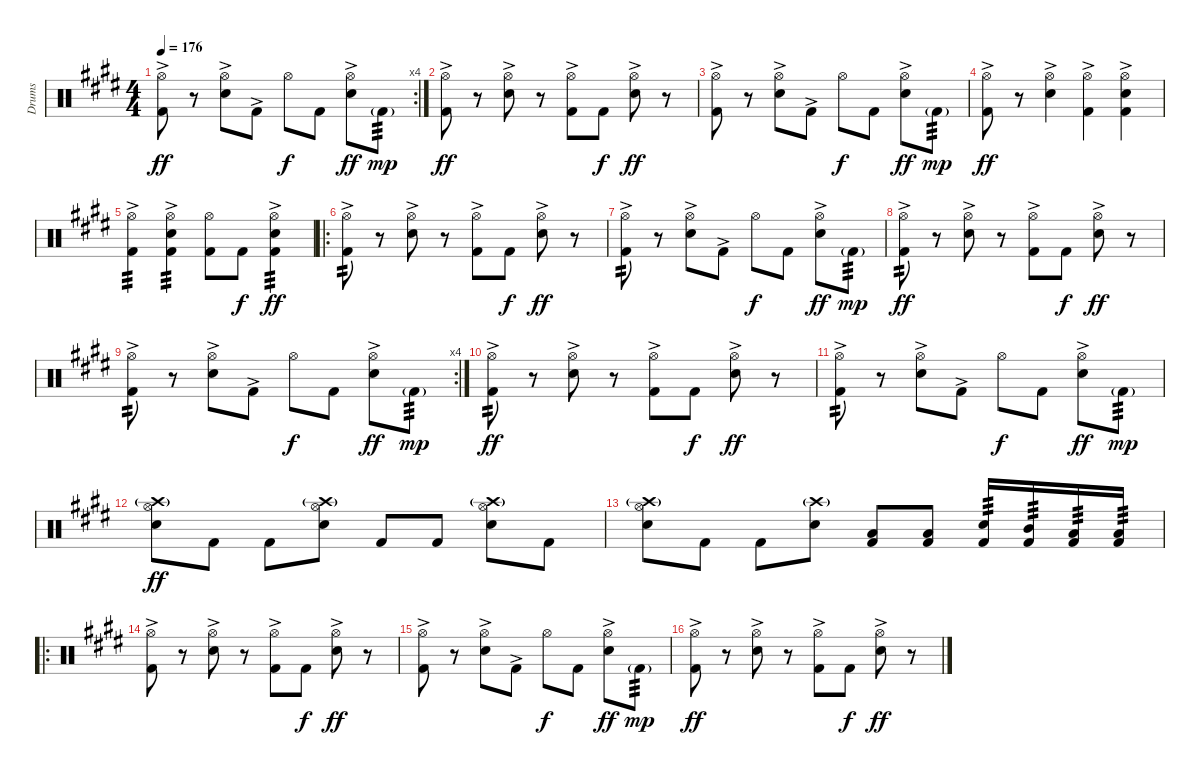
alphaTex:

\track ("Drums" "Drums") {instrument percussion}
\staff {score}
\articulation defaults
\rc 4
\ts (4 4)
\tempo 176
\clef neutral
\ks e
("Hi-Hat (open)" "Kick (hit) 2"{ac}).8{dy ff} r.8 ("Hi-Hat (open)" "Snare (hit) 2"{ac}).8 "Kick (hit) 2"{ac}.8 "Hi-Hat (open)".8{dy f} "Kick (hit) 2".8 ("Hi-Hat (open)" "Snare (hit) 2"{ac}).8{dy ff} "Kick (hit) 2"{g}.8{tp 3 dy mp} |
("Hi-Hat (open)" "Kick (hit) 2"{ac}).8{dy ff} r.8 ("Hi-Hat (open)" "Snare (hit) 2"{ac}).8 r.8 ("Hi-Hat (open)" "Kick (hit) 2"{ac}).8 "Kick (hit) 2".8{dy f} ("Hi-Hat (open)" "Snare (hit) 2"{ac}).8{dy ff} r.8 |
("Hi-Hat (open)" "Kick (hit) 2"{ac}).8 r.8 ("Hi-Hat (open)" "Snare (hit) 2"{ac}).8 "Kick (hit) 2"{ac}.8 "Hi-Hat (open)".8{dy f} "Kick (hit) 2".8 ("Hi-Hat (open)" "Snare (hit) 2"{ac}).8{dy ff} "Kick (hit) 2"{g}.8{tp 3 dy mp} |
("Hi-Hat (open)" "Kick (hit) 2"{ac}).8{dy ff} r.8 ("Hi-Hat (open)" "Snare (hit) 2"{ac}).4 ("Hi-Hat (open)" "Kick (hit) 2"{ac}).4 ("Hi-Hat (open)" "Snare (hit) 2"{ac} "Kick (hit) 2").4 |
("Hi-Hat (open)" "Kick (hit) 2"{ac}).4{tp 3} ("Hi-Hat (open)" "Snare (hit) 2"{ac} "Kick (hit) 2").4{tp 3} ("Hi-Hat (open)" "Kick (hit) 2").8 "Kick (hit) 2".8{dy f} ("Hi-Hat (open)" "Snare (hit) 2"{ac} "Kick (hit) 2").4{tp 3 dy ff} |
\ro
("Hi-Hat (open)" "Kick (hit) 2"{ac}).8{tp 2} r.8 ("Hi-Hat (open)" "Snare (hit) 2"{ac}).8 r.8 ("Hi-Hat (open)" "Kick (hit) 2"{ac}).8 "Kick (hit) 2".8{dy f} ("Hi-Hat (open)" "Snare (hit) 2"{ac}).8{dy ff} r.8 |
("Hi-Hat (open)" "Kick (hit) 2"{ac}).8{tp 2} r.8 ("Hi-Hat (open)" "Snare (hit) 2"{ac}).8 "Kick (hit) 2"{ac}.8 "Hi-Hat (open)".8{dy f} "Kick (hit) 2".8 ("Hi-Hat (open)" "Snare (hit) 2"{ac}).8{dy ff} "Kick (hit) 2"{g}.8{tp 3 dy mp} |
("Hi-Hat (open)" "Kick (hit) 2"{ac}).8{tp 2 dy ff} r.8 ("Hi-Hat (open)" "Snare (hit) 2"{ac}).8 r.8 ("Hi-Hat (open)" "Kick (hit) 2"{ac}).8 "Kick (hit) 2".8{dy f} ("Hi-Hat (open)" "Snare (hit) 2"{ac}).8{dy ff} r.8 |
\rc 4
("Hi-Hat (open)" "Kick (hit) 2"{ac}).8{tp 2} r.8 ("Hi-Hat (open)" "Snare (hit) 2"{ac}).8 "Kick (hit) 2"{ac}.8 "Hi-Hat (open)".8{dy f} "Kick (hit) 2".8 ("Hi-Hat (open)" "Snare (hit) 2"{ac}).8{dy ff} "Kick (hit) 2"{g}.8{tp 3 dy mp} |
("Hi-Hat (open)" "Kick (hit) 2"{ac}).8{tp 2 dy ff} r.8 ("Hi-Hat (open)" "Snare (hit) 2"{ac}).8 r.8 ("Hi-Hat (open)" "Kick (hit) 2"{ac}).8 "Kick (hit) 2".8{dy f} ("Hi-Hat (open)" "Snare (hit) 2"{ac}).8{dy ff} r.8 |
("Hi-Hat (open)" "Kick (hit) 2"{ac}).8{tp 2} r.8 ("Hi-Hat (open)" "Snare (hit) 2"{ac}).8 "Kick (hit) 2"{ac}.8 "Hi-Hat (open)".8{dy f} "Kick (hit) 2".8 ("Hi-Hat (open)" "Snare (hit) 2"{ac}).8{dy ff} "Kick (hit) 2"{g}.8{tp 3 dy mp} |
("Crash high (hit)"{g} "Hi-Hat (open)" "Snare (hit) 2").8{dy ff} "Kick (hit) 2".8 "Kick (hit) 2".8 ("Crash high (hit)"{g} "Hi-Hat (open)" "Snare (hit) 2").8 "Kick (hit) 2".8 "Kick (hit) 2".8 ("Crash high (hit)"{g} "Hi-Hat (open)" "Snare (hit) 2").8 "Kick (hit) 2".8 |
("Crash high (hit)"{g} "Hi-Hat (open)" "Snare (hit) 2").8 "Kick (hit) 2".8 "Kick (hit) 2".8 ("Crash high (hit)"{g} "Snare (hit) 2").8 ("Low Floor Tom (hit)" "Kick (hit) 2").8 ("Low Floor Tom (hit)" "Kick (hit) 2").8 ("Snare (hit) 2" "Kick (hit) 2").16{tp 3} ("Mid Tom (hit)" "Kick (hit) 2").16{tp 3} ("Low Tom (hit)" "Kick (hit) 2").16{tp 3} ("Low Floor Tom (hit)" "Kick (hit) 2").16{tp 3} |
\ro
("Hi-Hat (open)" "Kick (hit) 2"{ac}).8 r.8 ("Hi-Hat (open)" "Snare (hit) 2"{ac}).8 r.8 ("Hi-Hat (open)" "Kick (hit) 2"{ac}).8 "Kick (hit) 2".8{dy f} ("Hi-Hat (open)" "Snare (hit) 2"{ac}).8{dy ff} r.8 |
("Hi-Hat (open)" "Kick (hit) 2"{ac}).8 r.8 ("Hi-Hat (open)" "Snare (hit) 2"{ac}).8 "Kick (hit) 2"{ac}.8 "Hi-Hat (open)".8{dy f} "Kick (hit) 2".8 ("Hi-Hat (open)" "Snare (hit) 2"{ac}).8{dy ff} "Kick (hit) 2"{g}.8{tp 3 dy mp} |
("Hi-Hat (open)" "Kick (hit) 2"{ac}).8{dy ff} r.8 ("Hi-Hat (open)" "Snare (hit) 2"{ac}).8 r.8 ("Hi-Hat (open)" "Kick (hit) 2"{ac}).8 "Kick (hit) 2".8{dy f} ("Hi-Hat (open)" "Snare (hit) 2"{ac}).8{dy ff} r.8
